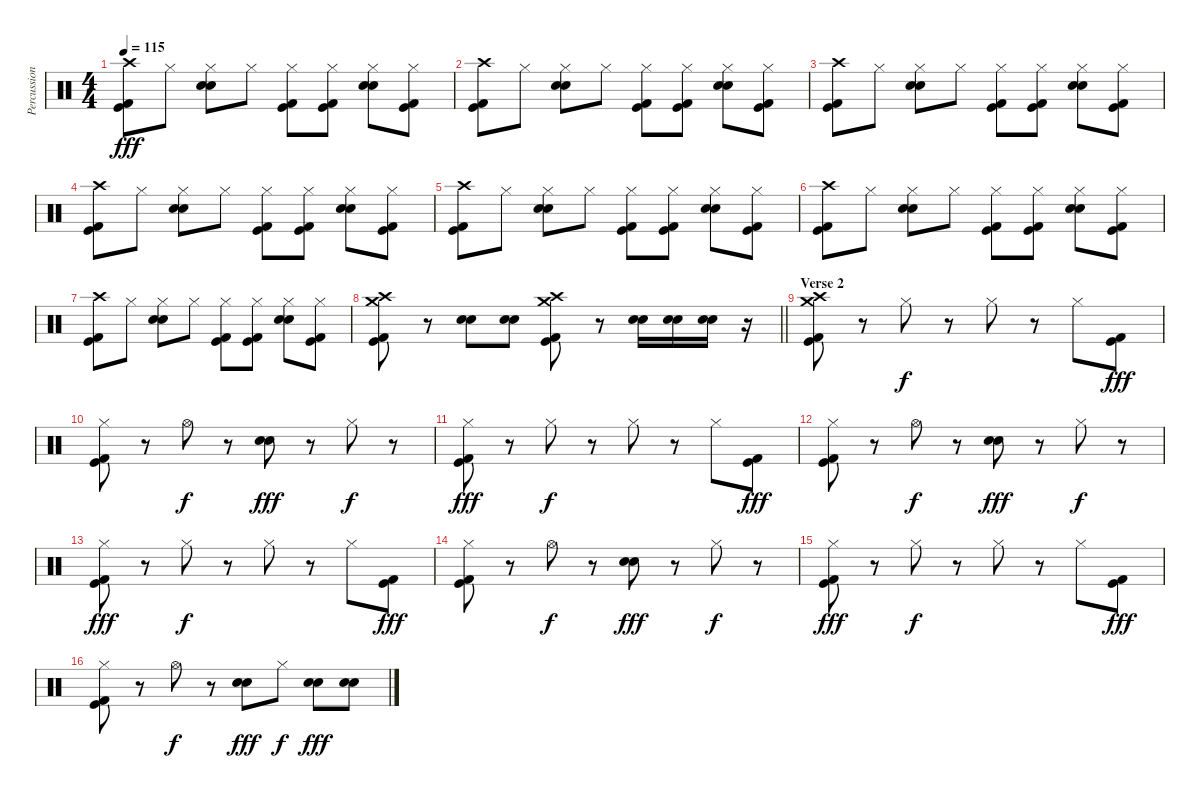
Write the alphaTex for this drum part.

\track ("Percussion" "Percussion") {instrument percussion}
\staff {score}
\articulation defaults
\ts (4 4)
\tempo 115
\clef neutral
\ks c
("Crash high (hit)" "Kick (hit) 2" "Kick (hit)").8{dy fff} "Hi-Hat (closed)".8 ("Hi-Hat (closed)" "Electric Snare (hit)" "Snare (hit) 2").8 "Hi-Hat (closed)".8 ("Hi-Hat (closed)" "Kick (hit) 2" "Kick (hit)").8 ("Hi-Hat (closed)" "Kick (hit) 2" "Kick (hit)").8 ("Hi-Hat (closed)" "Electric Snare (hit)" "Snare (hit) 2").8 ("Hi-Hat (closed)" "Kick (hit) 2" "Kick (hit)").8 |
("Crash high (hit)" "Kick (hit) 2" "Kick (hit)").8 "Hi-Hat (closed)".8 ("Hi-Hat (closed)" "Electric Snare (hit)" "Snare (hit) 2").8 "Hi-Hat (closed)".8 ("Hi-Hat (closed)" "Kick (hit) 2" "Kick (hit)").8 ("Hi-Hat (closed)" "Kick (hit) 2" "Kick (hit)").8 ("Hi-Hat (closed)" "Electric Snare (hit)" "Snare (hit) 2").8 ("Hi-Hat (closed)" "Kick (hit) 2" "Kick (hit)").8 |
("Crash high (hit)" "Kick (hit) 2" "Kick (hit)").8 "Hi-Hat (closed)".8 ("Hi-Hat (closed)" "Electric Snare (hit)" "Snare (hit) 2").8 "Hi-Hat (closed)".8 ("Hi-Hat (closed)" "Kick (hit) 2" "Kick (hit)").8 ("Hi-Hat (closed)" "Kick (hit) 2" "Kick (hit)").8 ("Hi-Hat (closed)" "Electric Snare (hit)" "Snare (hit) 2").8 ("Hi-Hat (closed)" "Kick (hit) 2" "Kick (hit)").8 |
("Crash high (hit)" "Kick (hit) 2" "Kick (hit)").8 "Hi-Hat (closed)".8 ("Hi-Hat (closed)" "Electric Snare (hit)" "Snare (hit) 2").8 "Hi-Hat (closed)".8 ("Hi-Hat (closed)" "Kick (hit) 2" "Kick (hit)").8 ("Hi-Hat (closed)" "Kick (hit) 2" "Kick (hit)").8 ("Hi-Hat (closed)" "Electric Snare (hit)" "Snare (hit) 2").8 ("Hi-Hat (closed)" "Kick (hit) 2" "Kick (hit)").8 |
("Crash high (hit)" "Kick (hit) 2" "Kick (hit)").8 "Hi-Hat (closed)".8 ("Hi-Hat (closed)" "Electric Snare (hit)" "Snare (hit) 2").8 "Hi-Hat (closed)".8 ("Hi-Hat (closed)" "Kick (hit) 2" "Kick (hit)").8 ("Hi-Hat (closed)" "Kick (hit) 2" "Kick (hit)").8 ("Hi-Hat (closed)" "Electric Snare (hit)" "Snare (hit) 2").8 ("Hi-Hat (closed)" "Kick (hit) 2" "Kick (hit)").8 |
("Crash high (hit)" "Kick (hit) 2" "Kick (hit)").8 "Hi-Hat (closed)".8 ("Hi-Hat (closed)" "Electric Snare (hit)" "Snare (hit) 2").8 "Hi-Hat (closed)".8 ("Hi-Hat (closed)" "Kick (hit) 2" "Kick (hit)").8 ("Hi-Hat (closed)" "Kick (hit) 2" "Kick (hit)").8 ("Hi-Hat (closed)" "Electric Snare (hit)" "Snare (hit) 2").8 ("Hi-Hat (closed)" "Kick (hit) 2" "Kick (hit)").8 |
("Crash high (hit)" "Kick (hit) 2" "Kick (hit)").8 "Hi-Hat (closed)".8 ("Hi-Hat (closed)" "Electric Snare (hit)" "Snare (hit) 2").8 "Hi-Hat (closed)".8 ("Hi-Hat (closed)" "Kick (hit) 2" "Kick (hit)").8 ("Hi-Hat (closed)" "Kick (hit) 2" "Kick (hit)").8 ("Hi-Hat (closed)" "Electric Snare (hit)" "Snare (hit) 2").8 ("Hi-Hat (closed)" "Kick (hit) 2" "Kick (hit)").8 |
\barLineRight lightlight
("Crash high (hit)" "Crash medium (hit)" "Kick (hit) 2" "Kick (hit)").8 r.8 ("Electric Snare (hit)" "Snare (hit) 2").8 ("Electric Snare (hit)" "Snare (hit) 2").8 ("Crash high (hit)" "Crash medium (hit)" "Kick (hit) 2" "Kick (hit)").8 r.8 ("Electric Snare (hit)" "Snare (hit) 2").16 ("Electric Snare (hit)" "Snare (hit) 2").16 ("Electric Snare (hit)" "Snare (hit) 2").16 r.16 |
\section ("" "Verse 2")
("Crash high (hit)" "Crash medium (hit)" "Kick (hit) 2" "Kick (hit)").8 r.8 "Hi-Hat (closed)".8{dy f} r.8 "Hi-Hat (closed)".8 r.8 "Hi-Hat (closed)".8 ("Kick (hit) 2" "Kick (hit)").8{dy fff} |
("Hi-Hat (closed)" "Kick (hit) 2" "Kick (hit)").8 r.8 "Hi-Hat (open)".8{dy f} r.8 ("Electric Snare (hit)" "Snare (hit) 2").8{dy fff} r.8 "Hi-Hat (closed)".8{dy f} r.8 |
("Hi-Hat (closed)" "Kick (hit) 2" "Kick (hit)").8{dy fff} r.8 "Hi-Hat (closed)".8{dy f} r.8 "Hi-Hat (closed)".8 r.8 "Hi-Hat (closed)".8 ("Kick (hit) 2" "Kick (hit)").8{dy fff} |
("Hi-Hat (closed)" "Kick (hit) 2" "Kick (hit)").8 r.8 "Hi-Hat (open)".8{dy f} r.8 ("Electric Snare (hit)" "Snare (hit) 2").8{dy fff} r.8 "Hi-Hat (closed)".8{dy f} r.8 |
("Hi-Hat (closed)" "Kick (hit) 2" "Kick (hit)").8{dy fff} r.8 "Hi-Hat (closed)".8{dy f} r.8 "Hi-Hat (closed)".8 r.8 "Hi-Hat (closed)".8 ("Kick (hit) 2" "Kick (hit)").8{dy fff} |
("Hi-Hat (closed)" "Kick (hit) 2" "Kick (hit)").8 r.8 "Hi-Hat (open)".8{dy f} r.8 ("Electric Snare (hit)" "Snare (hit) 2").8{dy fff} r.8 "Hi-Hat (closed)".8{dy f} r.8 |
("Hi-Hat (closed)" "Kick (hit) 2" "Kick (hit)").8{dy fff} r.8 "Hi-Hat (closed)".8{dy f} r.8 "Hi-Hat (closed)".8 r.8 "Hi-Hat (closed)".8 ("Kick (hit) 2" "Kick (hit)").8{dy fff} |
("Hi-Hat (closed)" "Kick (hit) 2" "Kick (hit)").8 r.8 "Hi-Hat (open)".8{dy f} r.8 ("Electric Snare (hit)" "Snare (hit) 2").8{dy fff} "Hi-Hat (closed)".8{dy f} ("Electric Snare (hit)" "Snare (hit) 2").8{dy fff} ("Electric Snare (hit)" "Snare (hit) 2").8
